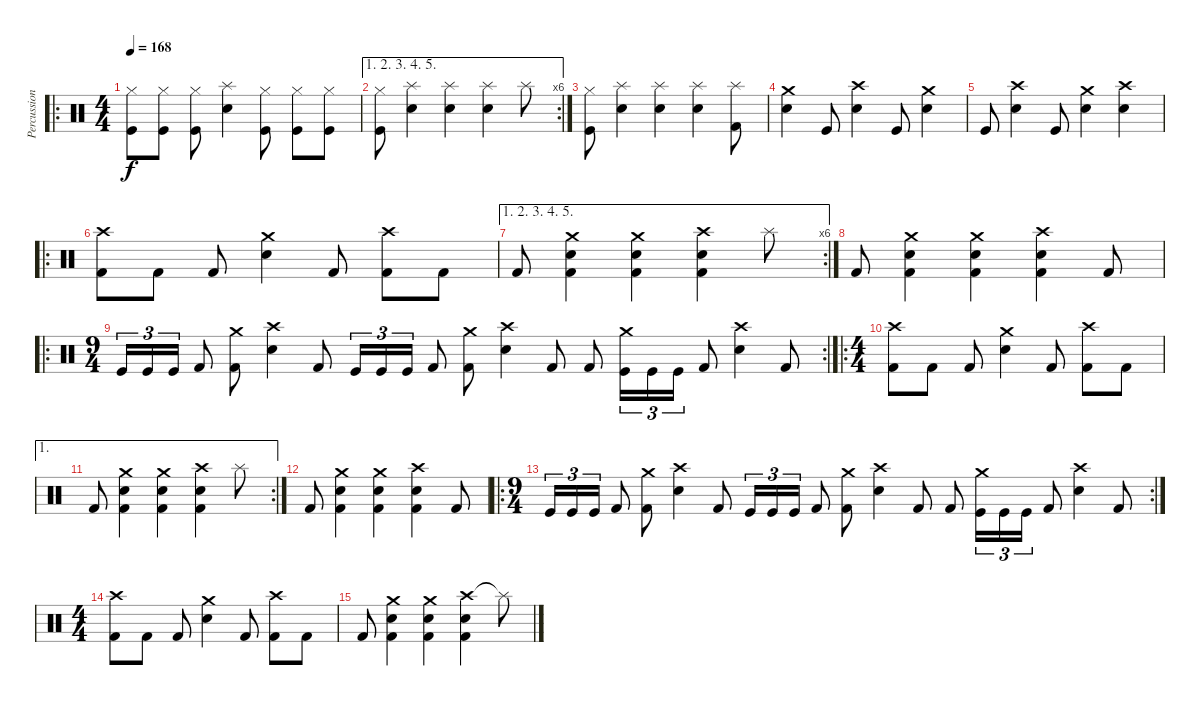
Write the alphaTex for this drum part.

\track ("Percussion" "Percussion") {instrument percussion}
\staff {score}
\articulation defaults
\ro
\ts (4 4)
\tempo 168
\clef neutral
\ks c
("Hi-Hat (closed)" "Kick (hit)").8{dy f} ("Hi-Hat (closed)" "Kick (hit)").8 ("Hi-Hat (closed)" "Kick (hit)").8 ("Splash (hit)" "Electric Snare (hit)").4 ("Hi-Hat (closed)" "Kick (hit)").8 ("Hi-Hat (closed)" "Kick (hit)").8 ("Hi-Hat (closed)" "Kick (hit)").8 |
\ae (1 2 3 4 5)
\rc 6
("Hi-Hat (closed)" "Kick (hit)").8 ("Splash (hit)" "Electric Snare (hit)").4 ("Splash (hit)" "Electric Snare (hit)").4 ("Splash (hit)" "Electric Snare (hit)").4 "Splash (hit)".8 |
("Hi-Hat (closed)" "Kick (hit)").8 ("Splash (hit)" "Electric Snare (hit)").4 ("Splash (hit)" "Electric Snare (hit)").4 ("Splash (hit)" "Electric Snare (hit)").4 ("Splash (hit)" "Kick (hit) 2").8 |
("Crash medium (hit)" "Electric Snare (hit)").4 "Kick (hit)".8 ("Crash high (hit)" "Electric Snare (hit)").4 "Kick (hit)".8 ("Crash medium (hit)" "Electric Snare (hit)").4 |
"Kick (hit)".8 ("Crash high (hit)" "Electric Snare (hit)").4 "Kick (hit)".8 ("Crash medium (hit)" "Electric Snare (hit)").4 ("Crash high (hit)" "Electric Snare (hit)").4 |
\ro
("Crash high (hit)" "Kick (hit) 2").8 "Kick (hit) 2".8 "Kick (hit) 2".8 ("Crash medium (hit)" "Electric Snare (hit)").4 "Kick (hit) 2".8 ("Crash high (hit)" "Kick (hit) 2").8 "Kick (hit) 2".8 |
\ae (1 2 3 4 5)
\rc 6 "Kick (hit) 2".8
("Crash medium (hit)" "Electric Snare (hit)" "Kick (hit) 2").4 ("Crash medium (hit)" "Electric Snare (hit)" "Kick (hit) 2").4 ("Crash high (hit)" "Electric Snare (hit)" "Kick (hit) 2").4 "Splash (hit)".8 |
"Kick (hit) 2".8 ("Crash medium (hit)" "Electric Snare (hit)" "Kick (hit) 2").4 ("Crash medium (hit)" "Electric Snare (hit)" "Kick (hit) 2").4 ("Crash high (hit)" "Electric Snare (hit)" "Kick (hit) 2").4 "Kick (hit) 2".8 |
\ro
\rc 2
\ts (9 4)
"Kick (hit)".16{tu (3 2)} "Kick (hit)".16{tu (3 2)} "Kick (hit)".16{tu (3 2)} "Kick (hit) 2".8 ("Crash medium (hit)" "Kick (hit) 2").8 ("Crash high (hit)" "Electric Snare (hit)").4 "Kick (hit) 2".8 "Kick (hit)".16{tu (3 2)} "Kick (hit)".16{tu (3 2)} "Kick (hit)".16{tu (3 2)} "Kick (hit) 2".8 ("Crash medium (hit)" "Kick (hit) 2").8 ("Crash high (hit)" "Electric Snare (hit)").4 "Kick (hit) 2".8 "Kick (hit) 2".8 ("Crash medium (hit)" "Kick (hit)").16{tu (3 2)} "Kick (hit)".16{tu (3 2)} "Kick (hit)".16{tu (3 2)} "Kick (hit) 2".8 ("Crash high (hit)" "Electric Snare (hit)").4 "Kick (hit) 2".8 |
\ro
\ts (4 4)
("Crash high (hit)" "Kick (hit) 2").8 "Kick (hit) 2".8 "Kick (hit) 2".8 ("Crash medium (hit)" "Electric Snare (hit)").4 "Kick (hit) 2".8 ("Crash high (hit)" "Kick (hit) 2").8 "Kick (hit) 2".8 |
\ae 1
\rc 2 "Kick (hit) 2".8
("Crash medium (hit)" "Electric Snare (hit)" "Kick (hit) 2").4 ("Crash medium (hit)" "Electric Snare (hit)" "Kick (hit) 2").4 ("Crash high (hit)" "Electric Snare (hit)" "Kick (hit) 2").4 "Splash (hit)".8 |
"Kick (hit) 2".8 ("Crash medium (hit)" "Electric Snare (hit)" "Kick (hit) 2").4 ("Crash medium (hit)" "Electric Snare (hit)" "Kick (hit) 2").4 ("Crash high (hit)" "Electric Snare (hit)" "Kick (hit) 2").4 "Kick (hit) 2".8 |
\ro
\rc 2
\ts (9 4)
"Kick (hit)".16{tu (3 2)} "Kick (hit)".16{tu (3 2)} "Kick (hit)".16{tu (3 2)} "Kick (hit) 2".8 ("Crash medium (hit)" "Kick (hit) 2").8 ("Crash high (hit)" "Electric Snare (hit)").4 "Kick (hit) 2".8 "Kick (hit)".16{tu (3 2)} "Kick (hit)".16{tu (3 2)} "Kick (hit)".16{tu (3 2)} "Kick (hit) 2".8 ("Crash medium (hit)" "Kick (hit) 2").8 ("Crash high (hit)" "Electric Snare (hit)").4 "Kick (hit) 2".8 "Kick (hit) 2".8 ("Crash medium (hit)" "Kick (hit)").16{tu (3 2)} "Kick (hit)".16{tu (3 2)} "Kick (hit)".16{tu (3 2)} "Kick (hit) 2".8 ("Crash high (hit)" "Electric Snare (hit)").4 "Kick (hit) 2".8 |
\ts (4 4)
("Crash high (hit)" "Kick (hit) 2").8 "Kick (hit) 2".8 "Kick (hit) 2".8 ("Crash medium (hit)" "Electric Snare (hit)").4 "Kick (hit) 2".8 ("Crash high (hit)" "Kick (hit) 2").8 "Kick (hit) 2".8 |
"Kick (hit) 2".8 ("Crash medium (hit)" "Electric Snare (hit)" "Kick (hit) 2").4 ("Crash medium (hit)" "Electric Snare (hit)" "Kick (hit) 2").4 ("Crash high (hit)" "Electric Snare (hit)" "Kick (hit) 2").4 "Splash (hit)"{t}.8
